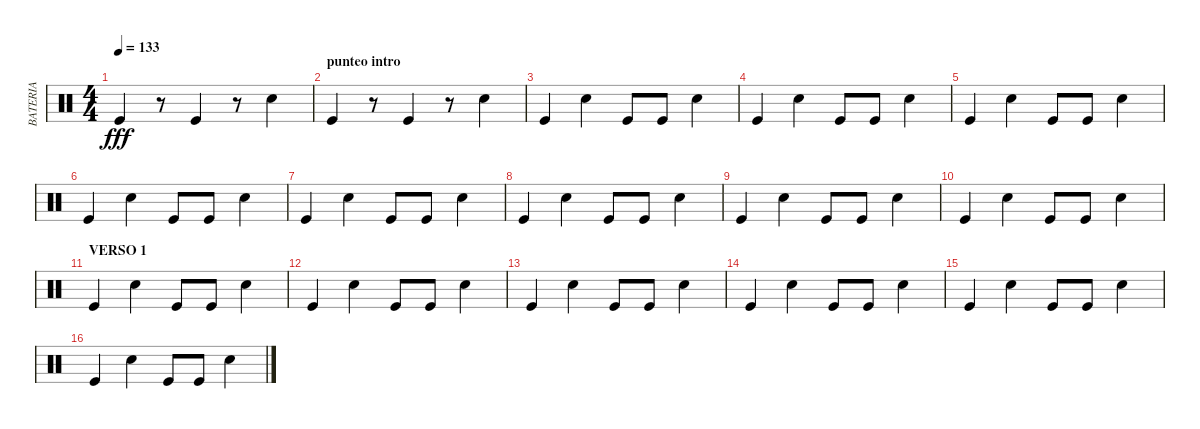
\track ("BATERIA" "BATERIA") {instrument percussion}
\staff {score}
\articulation defaults
\ts (4 4)
\tempo 133
\clef neutral
\ks c "Kick (hit)".4{dy fff}
r.8 "Kick (hit)".4 r.8 "Snare (hit) 2".4 |
\section ("" "punteo intro")
"Kick (hit)".4 r.8 "Kick (hit)".4 r.8 "Snare (hit) 2".4 |
"Kick (hit)".4 "Electric Snare (hit)".4 "Kick (hit)".8 "Kick (hit)".8 "Electric Snare (hit)".4 |
"Kick (hit)".4 "Electric Snare (hit)".4 "Kick (hit)".8 "Kick (hit)".8 "Electric Snare (hit)".4 |
"Kick (hit)".4 "Electric Snare (hit)".4 "Kick (hit)".8 "Kick (hit)".8 "Electric Snare (hit)".4 |
"Kick (hit)".4 "Electric Snare (hit)".4 "Kick (hit)".8 "Kick (hit)".8 "Electric Snare (hit)".4 |
"Kick (hit)".4 "Electric Snare (hit)".4 "Kick (hit)".8 "Kick (hit)".8 "Electric Snare (hit)".4 |
"Kick (hit)".4 "Electric Snare (hit)".4 "Kick (hit)".8 "Kick (hit)".8 "Electric Snare (hit)".4 |
"Kick (hit)".4 "Electric Snare (hit)".4 "Kick (hit)".8 "Kick (hit)".8 "Electric Snare (hit)".4 |
"Kick (hit)".4 "Electric Snare (hit)".4 "Kick (hit)".8 "Kick (hit)".8 "Electric Snare (hit)".4 |
\section ("" "VERSO 1")
"Kick (hit)".4 "Electric Snare (hit)".4 "Kick (hit)".8 "Kick (hit)".8 "Electric Snare (hit)".4 |
"Kick (hit)".4 "Electric Snare (hit)".4 "Kick (hit)".8 "Kick (hit)".8 "Electric Snare (hit)".4 |
"Kick (hit)".4 "Electric Snare (hit)".4 "Kick (hit)".8 "Kick (hit)".8 "Electric Snare (hit)".4 |
"Kick (hit)".4 "Electric Snare (hit)".4 "Kick (hit)".8 "Kick (hit)".8 "Electric Snare (hit)".4 |
"Kick (hit)".4 "Electric Snare (hit)".4 "Kick (hit)".8 "Kick (hit)".8 "Electric Snare (hit)".4 |
"Kick (hit)".4 "Electric Snare (hit)".4 "Kick (hit)".8 "Kick (hit)".8 "Electric Snare (hit)".4
